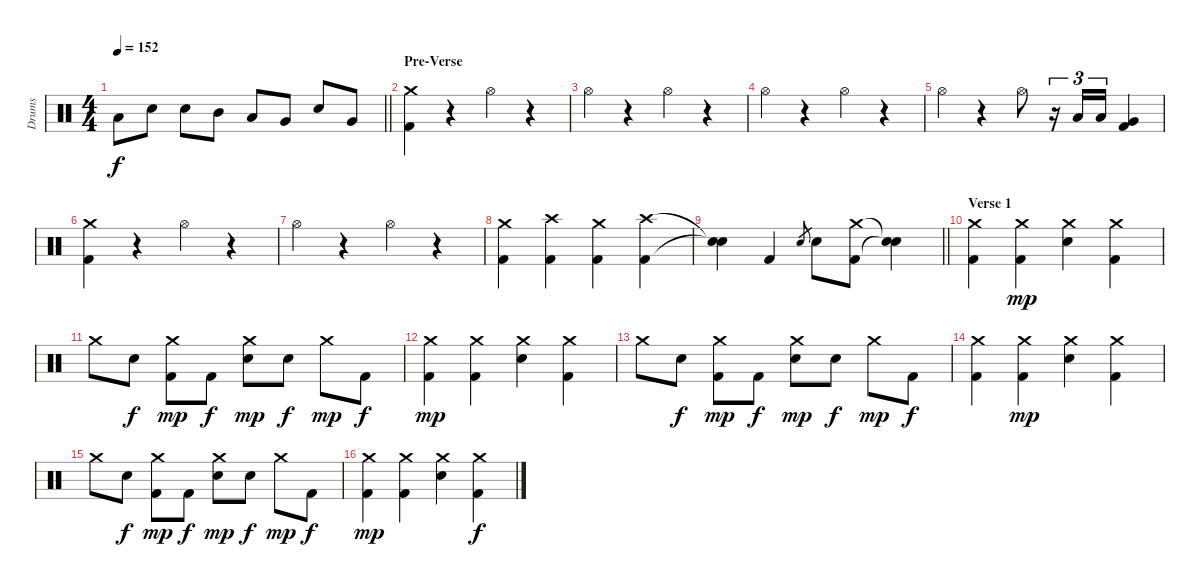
\track ("Drums" "Drums") {instrument percussion}
\staff {score}
\articulation defaults
\ts (4 4)
\tempo 152
\clef neutral
\barLineRight lightlight
\ks c "Low Tom (hit)".8{dy f} "Snare (hit) 2".8 "Snare (hit) 2".8 "Mid Tom (hit)".8 "Low Tom (hit)".8 "Very Low Tom (hit)".8 "Snare (hit) 2".8 "Very Low Tom (hit)".8
|
\section ("" "Pre-Verse")
("Crash medium (hit)" "Kick (hit) 2").4 r.4 "Hi-Hat (open)".4 r.4 |
"Hi-Hat (open)".4 r.4 "Hi-Hat (open)".4 r.4 |
"Hi-Hat (open)".4 r.4 "Hi-Hat (open)".4 r.4 |
"Hi-Hat (open)".4 r.4 "Hi-Hat (open)".8 r.16{tu (3 2)} "Low Tom (hit)".16{tu (3 2)} "Low Tom (hit)".16{tu (3 2)} ("Very Low Tom (hit)" "Kick (hit) 2").4 |
("Crash medium (hit)" "Kick (hit) 2").4 r.4 "Hi-Hat (open)".4 r.4 |
"Hi-Hat (open)".4 r.4 "Hi-Hat (open)".4 r.4 |
("Crash medium (hit)" "Kick (hit) 2").4 ("Crash high (hit)" "Kick (hit) 2").4 ("Crash medium (hit)" "Kick (hit) 2").4 ("Crash high (hit)" "Kick (hit) 2").4 |
\barLineRight lightlight
("Snare (hit)"{t} "Snare (hit)"{t}).4 "Kick (hit) 2".4 "Snare (hit) 2".8{gr} "Snare (hit) 2".8 ("Crash medium (hit)" "Kick (hit) 2").8 ("Snare (hit)"{t} "Snare (hit)"{t}).4 |
\section ("" "Verse 1")
("Crash medium (hit)" "Kick (hit) 2").4 ("Crash medium (hit)" "Kick (hit) 2").4{dy mp} ("Crash medium (hit)" "Snare (hit) 2").4 ("Crash medium (hit)" "Kick (hit) 2").4 |
"Crash medium (hit)".8 "Snare (hit) 2".8{dy f} ("Crash medium (hit)" "Kick (hit) 2").8{dy mp} "Kick (hit) 2".8{dy f} ("Crash medium (hit)" "Snare (hit) 2").8{dy mp} "Snare (hit) 2".8{dy f} "Crash medium (hit)".8{dy mp} "Kick (hit) 2".8{dy f} |
("Crash medium (hit)" "Kick (hit) 2").4{dy mp} ("Crash medium (hit)" "Kick (hit) 2").4 ("Crash medium (hit)" "Snare (hit) 2").4 ("Crash medium (hit)" "Kick (hit) 2").4 |
"Crash medium (hit)".8 "Snare (hit) 2".8{dy f} ("Crash medium (hit)" "Kick (hit) 2").8{dy mp} "Kick (hit) 2".8{dy f} ("Crash medium (hit)" "Snare (hit) 2").8{dy mp} "Snare (hit) 2".8{dy f} "Crash medium (hit)".8{dy mp} "Kick (hit) 2".8{dy f} |
("Crash medium (hit)" "Kick (hit) 2").4 ("Crash medium (hit)" "Kick (hit) 2").4{dy mp} ("Crash medium (hit)" "Snare (hit) 2").4 ("Crash medium (hit)" "Kick (hit) 2").4 |
"Crash medium (hit)".8 "Snare (hit) 2".8{dy f} ("Crash medium (hit)" "Kick (hit) 2").8{dy mp} "Kick (hit) 2".8{dy f} ("Crash medium (hit)" "Snare (hit) 2").8{dy mp} "Snare (hit) 2".8{dy f} "Crash medium (hit)".8{dy mp} "Kick (hit) 2".8{dy f} |
("Crash medium (hit)" "Kick (hit) 2").4{dy mp} ("Crash medium (hit)" "Kick (hit) 2").4 ("Crash medium (hit)" "Snare (hit) 2").4 ("Crash medium (hit)" "Kick (hit) 2").4{dy f}
